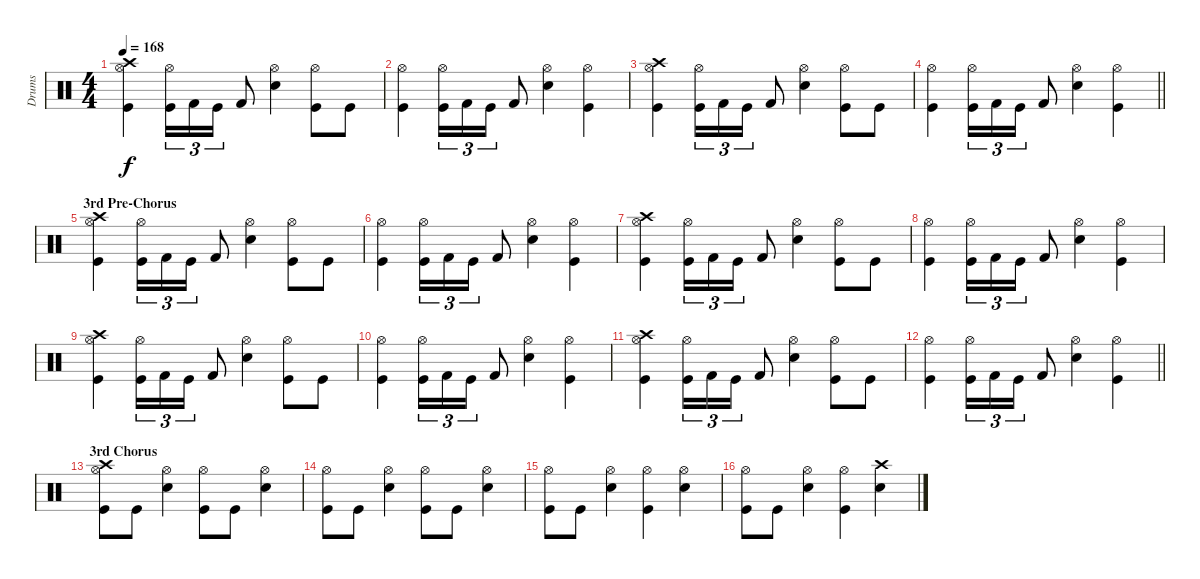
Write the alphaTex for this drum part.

\track ("Drums" "Drums") {instrument percussion}
\staff {score}
\articulation defaults
\ts (4 4)
\tempo 168
\clef neutral
\ks c
("Crash high (hit)" "Hi-Hat (open)" "Kick (hit)").4{dy f} ("Hi-Hat (open)" "Kick (hit)").16{tu (3 2)} "Kick (hit) 2".16{tu (3 2)} "Kick (hit)".16{tu (3 2)} "Kick (hit) 2".8 ("Hi-Hat (open)" "Snare (hit) 2").4 ("Hi-Hat (open)" "Kick (hit)").8 "Kick (hit)".8 |
("Hi-Hat (open)" "Kick (hit)").4 ("Hi-Hat (open)" "Kick (hit)").16{tu (3 2)} "Kick (hit) 2".16{tu (3 2)} "Kick (hit)".16{tu (3 2)} "Kick (hit) 2".8 ("Hi-Hat (open)" "Snare (hit) 2").4 ("Hi-Hat (open)" "Kick (hit)").4 |
("Crash high (hit)" "Hi-Hat (open)" "Kick (hit)").4 ("Hi-Hat (open)" "Kick (hit)").16{tu (3 2)} "Kick (hit) 2".16{tu (3 2)} "Kick (hit)".16{tu (3 2)} "Kick (hit) 2".8 ("Hi-Hat (open)" "Snare (hit) 2").4 ("Hi-Hat (open)" "Kick (hit)").8 "Kick (hit)".8 |
\barLineRight lightlight
("Hi-Hat (open)" "Kick (hit)").4 ("Hi-Hat (open)" "Kick (hit)").16{tu (3 2)} "Kick (hit) 2".16{tu (3 2)} "Kick (hit)".16{tu (3 2)} "Kick (hit) 2".8 ("Hi-Hat (open)" "Snare (hit) 2").4 ("Hi-Hat (open)" "Kick (hit)").4 |
\section ("" "3rd Pre-Chorus")
("Crash high (hit)" "Hi-Hat (open)" "Kick (hit)").4 ("Hi-Hat (open)" "Kick (hit)").16{tu (3 2)} "Kick (hit) 2".16{tu (3 2)} "Kick (hit)".16{tu (3 2)} "Kick (hit) 2".8 ("Hi-Hat (open)" "Snare (hit) 2").4 ("Hi-Hat (open)" "Kick (hit)").8 "Kick (hit)".8 |
("Hi-Hat (open)" "Kick (hit)").4 ("Hi-Hat (open)" "Kick (hit)").16{tu (3 2)} "Kick (hit) 2".16{tu (3 2)} "Kick (hit)".16{tu (3 2)} "Kick (hit) 2".8 ("Hi-Hat (open)" "Snare (hit) 2").4 ("Hi-Hat (open)" "Kick (hit)").4 |
("Crash high (hit)" "Hi-Hat (open)" "Kick (hit)").4 ("Hi-Hat (open)" "Kick (hit)").16{tu (3 2)} "Kick (hit) 2".16{tu (3 2)} "Kick (hit)".16{tu (3 2)} "Kick (hit) 2".8 ("Hi-Hat (open)" "Snare (hit) 2").4 ("Hi-Hat (open)" "Kick (hit)").8 "Kick (hit)".8 |
("Hi-Hat (open)" "Kick (hit)").4 ("Hi-Hat (open)" "Kick (hit)").16{tu (3 2)} "Kick (hit) 2".16{tu (3 2)} "Kick (hit)".16{tu (3 2)} "Kick (hit) 2".8 ("Hi-Hat (open)" "Snare (hit) 2").4 ("Hi-Hat (open)" "Kick (hit)").4 |
("Crash high (hit)" "Hi-Hat (open)" "Kick (hit)").4 ("Hi-Hat (open)" "Kick (hit)").16{tu (3 2)} "Kick (hit) 2".16{tu (3 2)} "Kick (hit)".16{tu (3 2)} "Kick (hit) 2".8 ("Hi-Hat (open)" "Snare (hit) 2").4 ("Hi-Hat (open)" "Kick (hit)").8 "Kick (hit)".8 |
("Hi-Hat (open)" "Kick (hit)").4 ("Hi-Hat (open)" "Kick (hit)").16{tu (3 2)} "Kick (hit) 2".16{tu (3 2)} "Kick (hit)".16{tu (3 2)} "Kick (hit) 2".8 ("Hi-Hat (open)" "Snare (hit) 2").4 ("Hi-Hat (open)" "Kick (hit)").4 |
("Crash high (hit)" "Hi-Hat (open)" "Kick (hit)").4 ("Hi-Hat (open)" "Kick (hit)").16{tu (3 2)} "Kick (hit) 2".16{tu (3 2)} "Kick (hit)".16{tu (3 2)} "Kick (hit) 2".8 ("Hi-Hat (open)" "Snare (hit) 2").4 ("Hi-Hat (open)" "Kick (hit)").8 "Kick (hit)".8 |
\barLineRight lightlight
("Hi-Hat (open)" "Kick (hit)").4 ("Hi-Hat (open)" "Kick (hit)").16{tu (3 2)} "Kick (hit) 2".16{tu (3 2)} "Kick (hit)".16{tu (3 2)} "Kick (hit) 2".8 ("Hi-Hat (open)" "Snare (hit) 2").4 ("Hi-Hat (open)" "Kick (hit)").4 |
\section ("" "3rd Chorus")
("Crash high (hit)" "Hi-Hat (open)" "Kick (hit)").8 "Kick (hit)".8 ("Hi-Hat (open)" "Snare (hit) 2").4 ("Hi-Hat (open)" "Kick (hit)").8 "Kick (hit)".8 ("Hi-Hat (open)" "Snare (hit) 2").4 |
("Hi-Hat (open)" "Kick (hit)").8 "Kick (hit)".8 ("Hi-Hat (open)" "Snare (hit) 2").4 ("Hi-Hat (open)" "Kick (hit)").8 "Kick (hit)".8 ("Hi-Hat (open)" "Snare (hit) 2").4 |
("Hi-Hat (open)" "Kick (hit)").8 "Kick (hit)".8 ("Hi-Hat (open)" "Snare (hit) 2").4 ("Hi-Hat (open)" "Kick (hit)").4 ("Hi-Hat (open)" "Snare (hit) 2").4 |
("Hi-Hat (open)" "Kick (hit)").8 "Kick (hit)".8 ("Hi-Hat (open)" "Snare (hit) 2").4 ("Hi-Hat (open)" "Kick (hit)").4 ("Crash high (hit)" "Snare (hit) 2").4
